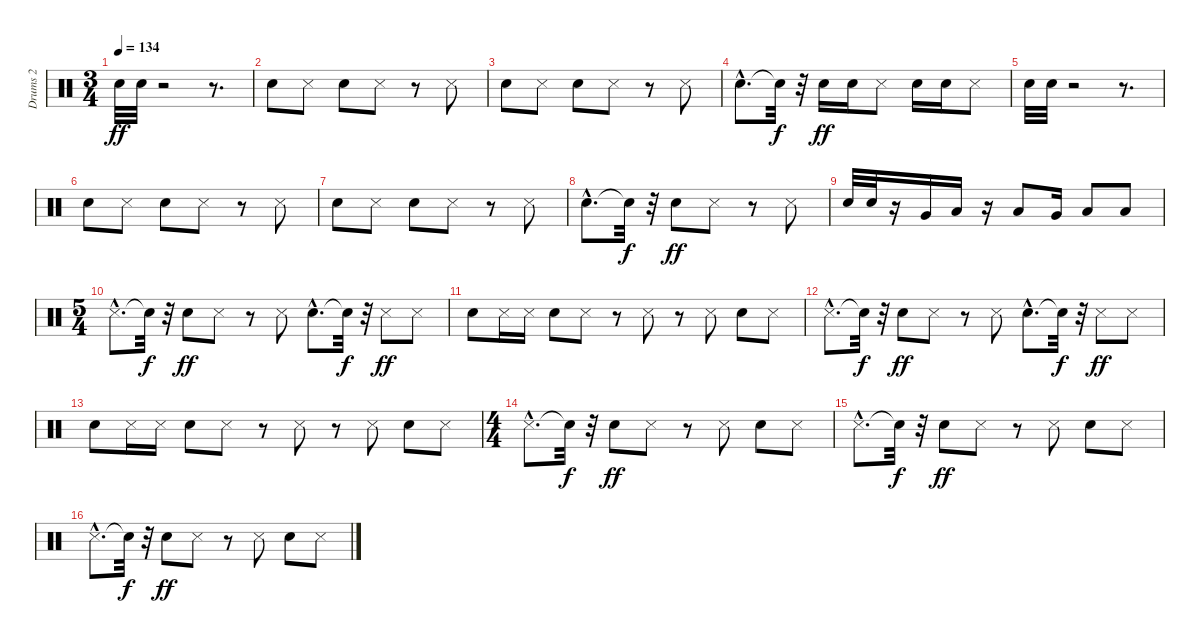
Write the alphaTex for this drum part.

\track ("Drums 2" "Drums 2") {instrument percussion}
\staff {score}
\articulation defaults
\ts (3 4)
\tempo 134
\clef neutral
\ks c "Snare (hit) 2".32{dy ff} "Snare (hit) 2".32
r.2 r.8{d} |
"Snare (hit) 2".8 "Metronome (hit)".8 "Snare (hit) 2".8 "Metronome (hit)".8 r.8 "Metronome (hit)".8 |
"Snare (hit) 2".8 "Metronome (hit)".8 "Snare (hit) 2".8 "Metronome (hit)".8 r.8 "Metronome (hit)".8 |
"Snare (hit) 2"{hac}.8{d} "Snare (hit)"{t}.32{dy f} r.32 "Snare (hit) 2".16{dy ff} "Snare (hit) 2".16 "Metronome (hit)".8 "Snare (hit) 2".16 "Snare (hit) 2".16 "Metronome (hit)".8 |
"Snare (hit) 2".32 "Snare (hit) 2".32 r.2 r.8{d} |
"Snare (hit) 2".8 "Metronome (hit)".8 "Snare (hit) 2".8 "Metronome (hit)".8 r.8 "Metronome (hit)".8 |
"Snare (hit) 2".8 "Metronome (hit)".8 "Snare (hit) 2".8 "Metronome (hit)".8 r.8 "Metronome (hit)".8 |
"Snare (hit) 2"{hac}.8{d} "Snare (hit)"{t}.32{dy f} r.32 "Snare (hit) 2".8{dy ff} "Metronome (hit)".8 r.8 "Metronome (hit)".8 |
"Snare (hit) 2".32 "Snare (hit) 2".32 r.16 "Very Low Tom (hit)".16 "Low Tom (hit)".16 r.16 "Low Floor Tom (hit)".8 "Very Low Tom (hit)".16 "Low Floor Tom (hit)".8 "Low Tom (hit)".8 |
\ts (5 4)
"Metronome (hit)"{hac}.8{d} "Snare (hit)"{t}.32{dy f} r.32 "Snare (hit) 2".8{dy ff} "Metronome (hit)".8 r.8 "Metronome (hit)".8 "Snare (hit) 2"{hac}.8{d} "Snare (hit)"{t}.32{dy f} r.32 "Metronome (hit)".8{dy ff} "Metronome (hit)".8 |
"Snare (hit) 2".8 "Metronome (hit)".16 "Metronome (hit)".16 "Snare (hit) 2".8 "Metronome (hit)".8 r.8 "Metronome (hit)".8 r.8 "Metronome (hit)".8 "Snare (hit) 2".8 "Metronome (hit)".8 |
"Metronome (hit)"{hac}.8{d} "Snare (hit)"{t}.32{dy f} r.32 "Snare (hit) 2".8{dy ff} "Metronome (hit)".8 r.8 "Metronome (hit)".8 "Snare (hit) 2"{hac}.8{d} "Snare (hit)"{t}.32{dy f} r.32 "Metronome (hit)".8{dy ff} "Metronome (hit)".8 |
"Snare (hit) 2".8 "Metronome (hit)".16 "Metronome (hit)".16 "Snare (hit) 2".8 "Metronome (hit)".8 r.8 "Metronome (hit)".8 r.8 "Metronome (hit)".8 "Snare (hit) 2".8 "Metronome (hit)".8 |
\ts (4 4)
"Metronome (hit)"{hac}.8{d} "Snare (hit)"{t}.32{dy f} r.32 "Snare (hit) 2".8{dy ff} "Metronome (hit)".8 r.8 "Metronome (hit)".8 "Snare (hit) 2".8 "Metronome (hit)".8 |
"Metronome (hit)"{hac}.8{d} "Snare (hit)"{t}.32{dy f} r.32 "Snare (hit) 2".8{dy ff} "Metronome (hit)".8 r.8 "Metronome (hit)".8 "Snare (hit) 2".8 "Metronome (hit)".8 |
"Metronome (hit)"{hac}.8{d} "Snare (hit)"{t}.32{dy f} r.32 "Snare (hit) 2".8{dy ff} "Metronome (hit)".8 r.8 "Metronome (hit)".8 "Snare (hit) 2".8 "Metronome (hit)".8
